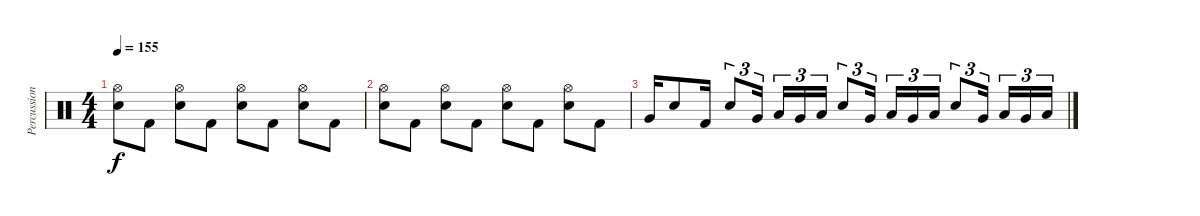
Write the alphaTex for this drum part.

\track ("Percussion" "Percussion") {instrument percussion}
\staff {score}
\articulation defaults
\ts (4 4)
\tempo 155
\clef neutral
\ks c
("Hi-Hat (open)" "Electric Snare (hit)").8{dy f} "Kick (hit) 2".8 ("Hi-Hat (open)" "Electric Snare (hit)").8 "Kick (hit) 2".8 ("Hi-Hat (open)" "Electric Snare (hit)").8 "Kick (hit) 2".8 ("Hi-Hat (open)" "Electric Snare (hit)").8 "Kick (hit) 2".8 |
("Hi-Hat (open)" "Electric Snare (hit)").8 "Kick (hit) 2".8 ("Hi-Hat (open)" "Electric Snare (hit)").8 "Kick (hit) 2".8 ("Hi-Hat (open)" "Electric Snare (hit)").8 "Kick (hit) 2".8 ("Hi-Hat (open)" "Electric Snare (hit)").8 "Kick (hit) 2".8 |
"Very Low Tom (hit)".16 "Electric Snare (hit)".8 "Kick (hit) 2".16 "Electric Snare (hit)".8{tu (3 2)} "Very Low Tom (hit)".16{tu (3 2)} "Low Floor Tom (hit)".16{tu (3 2)} "Very Low Tom (hit)".16{tu (3 2)} "Low Floor Tom (hit)".16{tu (3 2)} "Electric Snare (hit)".8{tu (3 2)} "Very Low Tom (hit)".16{tu (3 2)} "Low Floor Tom (hit)".16{tu (3 2)} "Very Low Tom (hit)".16{tu (3 2)} "Low Floor Tom (hit)".16{tu (3 2)} "Electric Snare (hit)".8{tu (3 2)} "Very Low Tom (hit)".16{tu (3 2)} "Low Floor Tom (hit)".16{tu (3 2)} "Very Low Tom (hit)".16{tu (3 2)} "Low Floor Tom (hit)".16{tu (3 2)}
